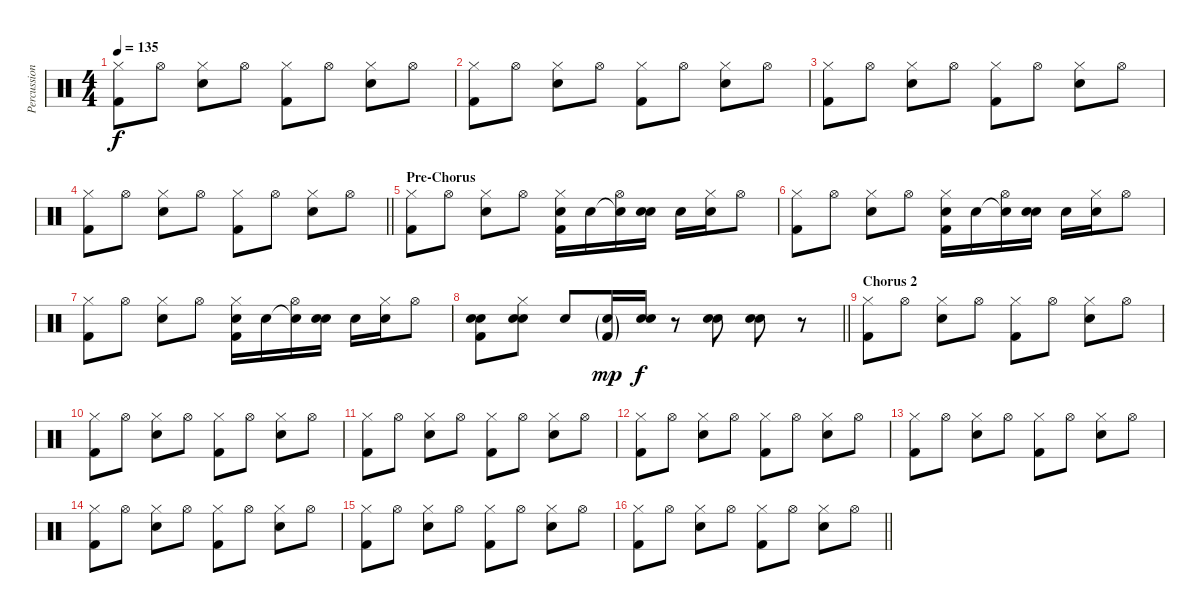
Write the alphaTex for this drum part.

\track ("Percussion" "Percussion") {instrument percussion}
\staff {score}
\articulation defaults
\ts (4 4)
\tempo 135
\clef neutral
\ks c
("Hi-Hat (closed)" "Kick (hit) 2").8{dy f} "Hi-Hat (open)".8 ("Hi-Hat (closed)" "Snare (hit) 2").8 "Hi-Hat (open)".8 ("Hi-Hat (closed)" "Kick (hit) 2").8 "Hi-Hat (open)".8 ("Hi-Hat (closed)" "Snare (hit) 2").8 "Hi-Hat (open)".8 |
("Hi-Hat (closed)" "Kick (hit) 2").8 "Hi-Hat (open)".8 ("Hi-Hat (closed)" "Snare (hit) 2").8 "Hi-Hat (open)".8 ("Hi-Hat (closed)" "Kick (hit) 2").8 "Hi-Hat (open)".8 ("Hi-Hat (closed)" "Snare (hit) 2").8 "Hi-Hat (open)".8 |
("Hi-Hat (closed)" "Kick (hit) 2").8 "Hi-Hat (open)".8 ("Hi-Hat (closed)" "Snare (hit) 2").8 "Hi-Hat (open)".8 ("Hi-Hat (closed)" "Kick (hit) 2").8 "Hi-Hat (open)".8 ("Hi-Hat (closed)" "Snare (hit) 2").8 "Hi-Hat (open)".8 |
\barLineRight lightlight
("Hi-Hat (closed)" "Kick (hit) 2").8 "Hi-Hat (open)".8 ("Hi-Hat (closed)" "Snare (hit) 2").8 "Hi-Hat (open)".8 ("Hi-Hat (closed)" "Kick (hit) 2").8 "Hi-Hat (open)".8 ("Hi-Hat (closed)" "Snare (hit) 2").8 "Hi-Hat (open)".8 |
\section ("" "Pre-Chorus")
("Hi-Hat (closed)" "Kick (hit) 2").8 "Hi-Hat (open)".8 ("Hi-Hat (closed)" "Snare (hit) 2").8 "Hi-Hat (open)".8 ("Electric Snare (hit)" "Hi-Hat (closed)" "Kick (hit) 2").16 "Electric Snare (hit)".16 ("Electric Snare (hit)"{t} "Hi-Hat (open)").16 ("Electric Snare (hit)" "Snare (hit) 2").16 "Electric Snare (hit)".16 ("Hi-Hat (closed)" "Snare (hit) 2").16 "Hi-Hat (open)".8 |
("Hi-Hat (closed)" "Kick (hit) 2").8 "Hi-Hat (open)".8 ("Electric Snare (hit)" "Hi-Hat (closed)").8 "Hi-Hat (open)".8 ("Electric Snare (hit)" "Hi-Hat (closed)" "Kick (hit) 2").16 "Electric Snare (hit)".16 ("Electric Snare (hit)"{t} "Hi-Hat (open)").16 ("Electric Snare (hit)" "Snare (hit) 2").16 "Electric Snare (hit)".16 ("Hi-Hat (closed)" "Snare (hit) 2").16 "Hi-Hat (open)".8 |
("Hi-Hat (closed)" "Kick (hit) 2").8 "Hi-Hat (open)".8 ("Electric Snare (hit)" "Hi-Hat (closed)").8 "Hi-Hat (open)".8 ("Electric Snare (hit)" "Hi-Hat (closed)" "Kick (hit) 2").16 "Electric Snare (hit)".16 ("Electric Snare (hit)"{t} "Hi-Hat (open)").16 ("Electric Snare (hit)" "Snare (hit) 2").16 "Electric Snare (hit)".16 ("Hi-Hat (closed)" "Snare (hit) 2").16 "Hi-Hat (open)".8 |
\barLineRight lightlight
("Snare (hit) 2" "Electric Snare (hit)" "Kick (hit) 2").8 ("Snare (hit) 2" "Electric Snare (hit)" "Hi-Hat (closed)").8 "Snare (hit) 2".8 ("Electric Snare (hit)"{g} "Kick (hit) 2"{g}).16{dy mp} ("Electric Snare (hit)" "Snare (hit) 2").16{dy f} r.8 ("Electric Snare (hit)" "Snare (hit) 2").8 ("Electric Snare (hit)" "Snare (hit) 2").8 r.8 |
\section ("" "Chorus 2")
("Hi-Hat (closed)" "Kick (hit) 2").8 "Hi-Hat (open)".8 ("Hi-Hat (closed)" "Electric Snare (hit)").8 "Hi-Hat (open)".8 ("Hi-Hat (closed)" "Kick (hit) 2").8 "Hi-Hat (open)".8 ("Hi-Hat (closed)" "Electric Snare (hit)").8 "Hi-Hat (open)".8 |
("Hi-Hat (closed)" "Kick (hit) 2").8 "Hi-Hat (open)".8 ("Hi-Hat (closed)" "Electric Snare (hit)").8 "Hi-Hat (open)".8 ("Hi-Hat (closed)" "Kick (hit) 2").8 "Hi-Hat (open)".8 ("Hi-Hat (closed)" "Electric Snare (hit)").8 "Hi-Hat (open)".8 |
("Hi-Hat (closed)" "Kick (hit) 2").8 "Hi-Hat (open)".8 ("Hi-Hat (closed)" "Snare (hit) 2").8 "Hi-Hat (open)".8 ("Hi-Hat (closed)" "Kick (hit) 2").8 "Hi-Hat (open)".8 ("Hi-Hat (closed)" "Snare (hit) 2").8 "Hi-Hat (open)".8 |
("Hi-Hat (closed)" "Kick (hit) 2").8 "Hi-Hat (open)".8 ("Hi-Hat (closed)" "Snare (hit) 2").8 "Hi-Hat (open)".8 ("Hi-Hat (closed)" "Kick (hit) 2").8 "Hi-Hat (open)".8 ("Hi-Hat (closed)" "Snare (hit) 2").8 "Hi-Hat (open)".8 |
("Hi-Hat (closed)" "Kick (hit) 2").8 "Hi-Hat (open)".8 ("Hi-Hat (closed)" "Snare (hit) 2").8 "Hi-Hat (open)".8 ("Hi-Hat (closed)" "Kick (hit) 2").8 "Hi-Hat (open)".8 ("Hi-Hat (closed)" "Snare (hit) 2").8 "Hi-Hat (open)".8 |
("Hi-Hat (closed)" "Kick (hit) 2").8 "Hi-Hat (open)".8 ("Hi-Hat (closed)" "Snare (hit) 2").8 "Hi-Hat (open)".8 ("Hi-Hat (closed)" "Kick (hit) 2").8 "Hi-Hat (open)".8 ("Hi-Hat (closed)" "Snare (hit) 2").8 "Hi-Hat (open)".8 |
("Hi-Hat (closed)" "Kick (hit) 2").8 "Hi-Hat (open)".8 ("Hi-Hat (closed)" "Snare (hit) 2").8 "Hi-Hat (open)".8 ("Hi-Hat (closed)" "Kick (hit) 2").8 "Hi-Hat (open)".8 ("Hi-Hat (closed)" "Snare (hit) 2").8 "Hi-Hat (open)".8 |
\barLineRight lightlight
("Hi-Hat (closed)" "Kick (hit) 2").8 "Hi-Hat (open)".8 ("Hi-Hat (closed)" "Snare (hit) 2").8 "Hi-Hat (open)".8 ("Hi-Hat (closed)" "Kick (hit) 2").8 "Hi-Hat (open)".8 ("Hi-Hat (closed)" "Snare (hit) 2").8 "Hi-Hat (open)".8
